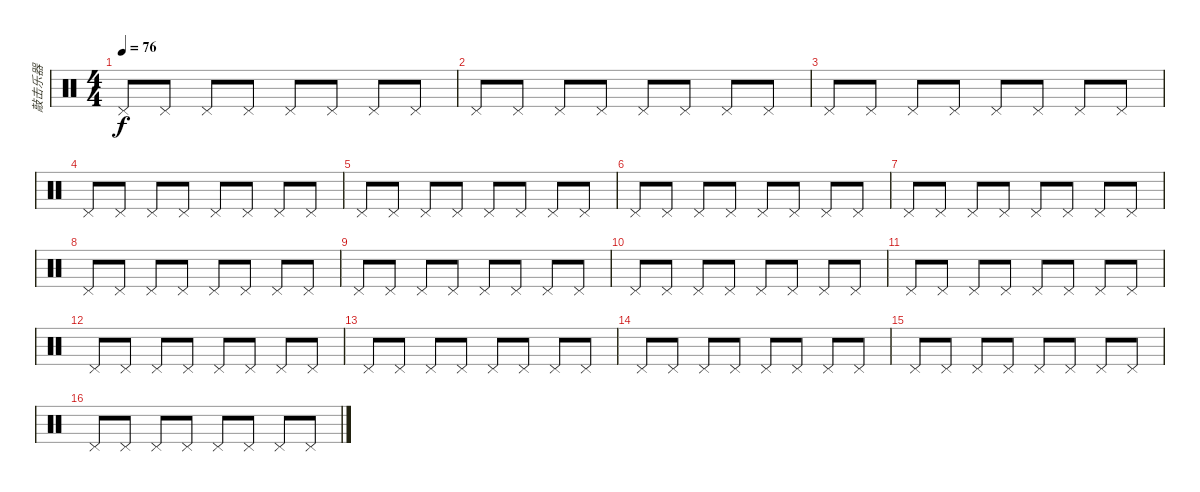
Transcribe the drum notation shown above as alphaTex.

\track ("敲击乐器" "敲击乐器") {instrument percussion}
\staff {score}
\articulation defaults
\ts (4 4)
\tempo 76
\clef neutral
\ks c "Pedal Hi-Hat (hit)".8{dy f} "Pedal Hi-Hat (hit)".8 "Pedal Hi-Hat (hit)".8 "Pedal Hi-Hat (hit)".8 "Pedal Hi-Hat (hit)".8 "Pedal Hi-Hat (hit)".8 "Pedal Hi-Hat (hit)".8 "Pedal Hi-Hat (hit)".8
|
"Pedal Hi-Hat (hit)".8 "Pedal Hi-Hat (hit)".8 "Pedal Hi-Hat (hit)".8 "Pedal Hi-Hat (hit)".8 "Pedal Hi-Hat (hit)".8 "Pedal Hi-Hat (hit)".8 "Pedal Hi-Hat (hit)".8 "Pedal Hi-Hat (hit)".8 |
"Pedal Hi-Hat (hit)".8 "Pedal Hi-Hat (hit)".8 "Pedal Hi-Hat (hit)".8 "Pedal Hi-Hat (hit)".8 "Pedal Hi-Hat (hit)".8 "Pedal Hi-Hat (hit)".8 "Pedal Hi-Hat (hit)".8 "Pedal Hi-Hat (hit)".8 |
"Pedal Hi-Hat (hit)".8 "Pedal Hi-Hat (hit)".8 "Pedal Hi-Hat (hit)".8 "Pedal Hi-Hat (hit)".8 "Pedal Hi-Hat (hit)".8 "Pedal Hi-Hat (hit)".8 "Pedal Hi-Hat (hit)".8 "Pedal Hi-Hat (hit)".8 |
"Pedal Hi-Hat (hit)".8 "Pedal Hi-Hat (hit)".8 "Pedal Hi-Hat (hit)".8 "Pedal Hi-Hat (hit)".8 "Pedal Hi-Hat (hit)".8 "Pedal Hi-Hat (hit)".8 "Pedal Hi-Hat (hit)".8 "Pedal Hi-Hat (hit)".8 |
"Pedal Hi-Hat (hit)".8 "Pedal Hi-Hat (hit)".8 "Pedal Hi-Hat (hit)".8 "Pedal Hi-Hat (hit)".8 "Pedal Hi-Hat (hit)".8 "Pedal Hi-Hat (hit)".8 "Pedal Hi-Hat (hit)".8 "Pedal Hi-Hat (hit)".8 |
"Pedal Hi-Hat (hit)".8 "Pedal Hi-Hat (hit)".8 "Pedal Hi-Hat (hit)".8 "Pedal Hi-Hat (hit)".8 "Pedal Hi-Hat (hit)".8 "Pedal Hi-Hat (hit)".8 "Pedal Hi-Hat (hit)".8 "Pedal Hi-Hat (hit)".8 |
"Pedal Hi-Hat (hit)".8 "Pedal Hi-Hat (hit)".8 "Pedal Hi-Hat (hit)".8 "Pedal Hi-Hat (hit)".8 "Pedal Hi-Hat (hit)".8 "Pedal Hi-Hat (hit)".8 "Pedal Hi-Hat (hit)".8 "Pedal Hi-Hat (hit)".8 |
"Pedal Hi-Hat (hit)".8 "Pedal Hi-Hat (hit)".8 "Pedal Hi-Hat (hit)".8 "Pedal Hi-Hat (hit)".8 "Pedal Hi-Hat (hit)".8 "Pedal Hi-Hat (hit)".8 "Pedal Hi-Hat (hit)".8 "Pedal Hi-Hat (hit)".8 |
"Pedal Hi-Hat (hit)".8 "Pedal Hi-Hat (hit)".8 "Pedal Hi-Hat (hit)".8 "Pedal Hi-Hat (hit)".8 "Pedal Hi-Hat (hit)".8 "Pedal Hi-Hat (hit)".8 "Pedal Hi-Hat (hit)".8 "Pedal Hi-Hat (hit)".8 |
"Pedal Hi-Hat (hit)".8 "Pedal Hi-Hat (hit)".8 "Pedal Hi-Hat (hit)".8 "Pedal Hi-Hat (hit)".8 "Pedal Hi-Hat (hit)".8 "Pedal Hi-Hat (hit)".8 "Pedal Hi-Hat (hit)".8 "Pedal Hi-Hat (hit)".8 |
"Pedal Hi-Hat (hit)".8 "Pedal Hi-Hat (hit)".8 "Pedal Hi-Hat (hit)".8 "Pedal Hi-Hat (hit)".8 "Pedal Hi-Hat (hit)".8 "Pedal Hi-Hat (hit)".8 "Pedal Hi-Hat (hit)".8 "Pedal Hi-Hat (hit)".8 |
"Pedal Hi-Hat (hit)".8 "Pedal Hi-Hat (hit)".8 "Pedal Hi-Hat (hit)".8 "Pedal Hi-Hat (hit)".8 "Pedal Hi-Hat (hit)".8 "Pedal Hi-Hat (hit)".8 "Pedal Hi-Hat (hit)".8 "Pedal Hi-Hat (hit)".8 |
"Pedal Hi-Hat (hit)".8 "Pedal Hi-Hat (hit)".8 "Pedal Hi-Hat (hit)".8 "Pedal Hi-Hat (hit)".8 "Pedal Hi-Hat (hit)".8 "Pedal Hi-Hat (hit)".8 "Pedal Hi-Hat (hit)".8 "Pedal Hi-Hat (hit)".8 |
"Pedal Hi-Hat (hit)".8 "Pedal Hi-Hat (hit)".8 "Pedal Hi-Hat (hit)".8 "Pedal Hi-Hat (hit)".8 "Pedal Hi-Hat (hit)".8 "Pedal Hi-Hat (hit)".8 "Pedal Hi-Hat (hit)".8 "Pedal Hi-Hat (hit)".8 |
"Pedal Hi-Hat (hit)".8 "Pedal Hi-Hat (hit)".8 "Pedal Hi-Hat (hit)".8 "Pedal Hi-Hat (hit)".8 "Pedal Hi-Hat (hit)".8 "Pedal Hi-Hat (hit)".8 "Pedal Hi-Hat (hit)".8 "Pedal Hi-Hat (hit)".8
